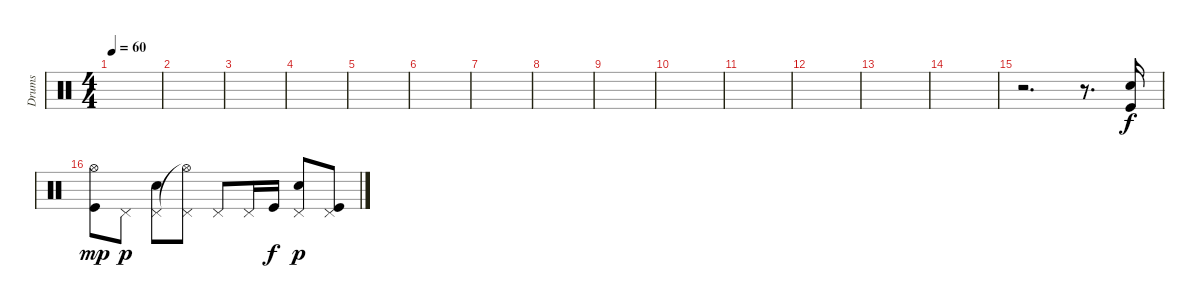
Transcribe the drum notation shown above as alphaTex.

\track ("Drums" "Drums") {instrument percussion}
\staff {score}
\articulation defaults
\ts (4 4)
\tempo 60
\clef neutral
\ks c
|
|
|
|
|
|
|
|
|
|
|
|
|
|
r.2{d} r.8{d} ("Electric Snare (hit)" "Kick (hit)").16 |
("Hi-Hat (open)" "Kick (hit)").8{dy mp} "Pedal Hi-Hat (hit)".8{dy p} ("Pedal Hi-Hat (hit)" "Electric Snare (hit)").8 ("Hi-Hat (open)"{t} "Pedal Hi-Hat (hit)").8 "Pedal Hi-Hat (hit)".8 "Pedal Hi-Hat (hit)".16 "Kick (hit)".16{dy f} ("Pedal Hi-Hat (hit)" "Electric Snare (hit)").8{dy p} ("Pedal Hi-Hat (hit)" "Kick (hit)").8
